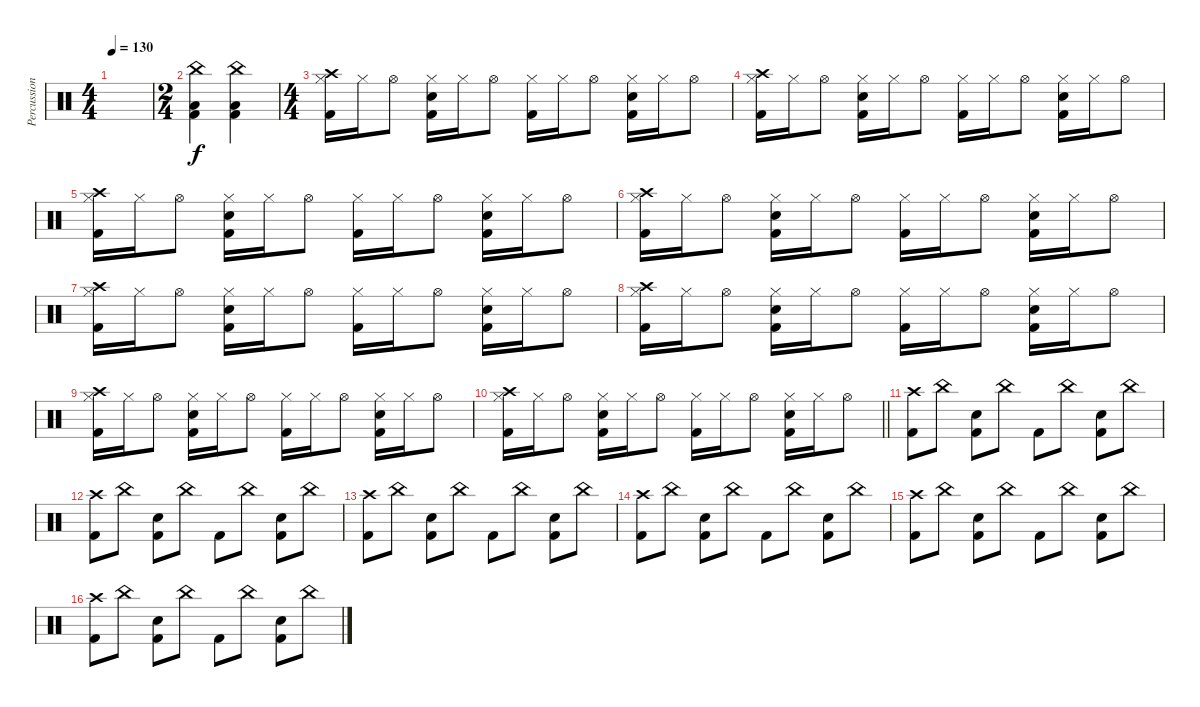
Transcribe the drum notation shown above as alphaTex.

\track ("Percussions" "Percussion") {instrument percussion}
\staff {score}
\articulation defaults
\ts (4 4)
\tempo 130
\clef neutral
\ks c
|
\ts (2 4)
("China (hit)" "Low Floor Tom (hit)" "Kick (hit) 2").4 ("China (hit)" "Low Floor Tom (hit)" "Kick (hit) 2").4 |
\ts (4 4)
\section ("" "")
("Crash high (hit)" "Hi-Hat (closed)" "Kick (hit) 2").16 "Hi-Hat (closed)".16 "Hi-Hat (open)".8 ("Hi-Hat (closed)" "Electric Snare (hit)" "Kick (hit) 2").16 "Hi-Hat (closed)".16 "Hi-Hat (open)".8 ("Hi-Hat (closed)" "Kick (hit) 2").16 "Hi-Hat (closed)".16 "Hi-Hat (open)".8 ("Hi-Hat (closed)" "Electric Snare (hit)" "Kick (hit) 2").16 "Hi-Hat (closed)".16 "Hi-Hat (open)".8 |
("Crash high (hit)" "Hi-Hat (closed)" "Kick (hit) 2").16 "Hi-Hat (closed)".16 "Hi-Hat (open)".8 ("Hi-Hat (closed)" "Electric Snare (hit)" "Kick (hit) 2").16 "Hi-Hat (closed)".16 "Hi-Hat (open)".8 ("Hi-Hat (closed)" "Kick (hit) 2").16 "Hi-Hat (closed)".16 "Hi-Hat (open)".8 ("Hi-Hat (closed)" "Electric Snare (hit)" "Kick (hit) 2").16 "Hi-Hat (closed)".16 "Hi-Hat (open)".8 |
("Crash high (hit)" "Hi-Hat (closed)" "Kick (hit) 2").16 "Hi-Hat (closed)".16 "Hi-Hat (open)".8 ("Hi-Hat (closed)" "Electric Snare (hit)" "Kick (hit) 2").16 "Hi-Hat (closed)".16 "Hi-Hat (open)".8 ("Hi-Hat (closed)" "Kick (hit) 2").16 "Hi-Hat (closed)".16 "Hi-Hat (open)".8 ("Hi-Hat (closed)" "Electric Snare (hit)" "Kick (hit) 2").16 "Hi-Hat (closed)".16 "Hi-Hat (open)".8 |
("Crash high (hit)" "Hi-Hat (closed)" "Kick (hit) 2").16 "Hi-Hat (closed)".16 "Hi-Hat (open)".8 ("Hi-Hat (closed)" "Electric Snare (hit)" "Kick (hit) 2").16 "Hi-Hat (closed)".16 "Hi-Hat (open)".8 ("Hi-Hat (closed)" "Kick (hit) 2").16 "Hi-Hat (closed)".16 "Hi-Hat (open)".8 ("Hi-Hat (closed)" "Electric Snare (hit)" "Kick (hit) 2").16 "Hi-Hat (closed)".16 "Hi-Hat (open)".8 |
("Crash high (hit)" "Hi-Hat (closed)" "Kick (hit) 2").16 "Hi-Hat (closed)".16 "Hi-Hat (open)".8 ("Hi-Hat (closed)" "Electric Snare (hit)" "Kick (hit) 2").16 "Hi-Hat (closed)".16 "Hi-Hat (open)".8 ("Hi-Hat (closed)" "Kick (hit) 2").16 "Hi-Hat (closed)".16 "Hi-Hat (open)".8 ("Hi-Hat (closed)" "Electric Snare (hit)" "Kick (hit) 2").16 "Hi-Hat (closed)".16 "Hi-Hat (open)".8 |
("Crash high (hit)" "Hi-Hat (closed)" "Kick (hit) 2").16 "Hi-Hat (closed)".16 "Hi-Hat (open)".8 ("Hi-Hat (closed)" "Electric Snare (hit)" "Kick (hit) 2").16 "Hi-Hat (closed)".16 "Hi-Hat (open)".8 ("Hi-Hat (closed)" "Kick (hit) 2").16 "Hi-Hat (closed)".16 "Hi-Hat (open)".8 ("Hi-Hat (closed)" "Electric Snare (hit)" "Kick (hit) 2").16 "Hi-Hat (closed)".16 "Hi-Hat (open)".8 |
("Crash high (hit)" "Hi-Hat (closed)" "Kick (hit) 2").16 "Hi-Hat (closed)".16 "Hi-Hat (open)".8 ("Hi-Hat (closed)" "Electric Snare (hit)" "Kick (hit) 2").16 "Hi-Hat (closed)".16 "Hi-Hat (open)".8 ("Hi-Hat (closed)" "Kick (hit) 2").16 "Hi-Hat (closed)".16 "Hi-Hat (open)".8 ("Hi-Hat (closed)" "Electric Snare (hit)" "Kick (hit) 2").16 "Hi-Hat (closed)".16 "Hi-Hat (open)".8 |
\barLineRight lightlight
("Crash high (hit)" "Hi-Hat (closed)" "Kick (hit) 2").16 "Hi-Hat (closed)".16 "Hi-Hat (open)".8 ("Hi-Hat (closed)" "Electric Snare (hit)" "Kick (hit) 2").16 "Hi-Hat (closed)".16 "Hi-Hat (open)".8 ("Hi-Hat (closed)" "Kick (hit) 2").16 "Hi-Hat (closed)".16 "Hi-Hat (open)".8 ("Hi-Hat (closed)" "Electric Snare (hit)" "Kick (hit) 2").16 "Hi-Hat (closed)".16 "Hi-Hat (open)".8 |
\section ("" "")
("Crash high (hit)" "Kick (hit) 2").8 "China (hit)".8 ("Electric Snare (hit)" "Kick (hit) 2").8 "China (hit)".8 "Kick (hit) 2".8 "China (hit)".8 ("Electric Snare (hit)" "Kick (hit) 2").8 "China (hit)".8 |
("Crash high (hit)" "Kick (hit) 2").8 "China (hit)".8 ("Electric Snare (hit)" "Kick (hit) 2").8 "China (hit)".8 "Kick (hit) 2".8 "China (hit)".8 ("Electric Snare (hit)" "Kick (hit) 2").8 "China (hit)".8 |
("Crash high (hit)" "Kick (hit) 2").8 "China (hit)".8 ("Electric Snare (hit)" "Kick (hit) 2").8 "China (hit)".8 "Kick (hit) 2".8 "China (hit)".8 ("Electric Snare (hit)" "Kick (hit) 2").8 "China (hit)".8 |
("Crash high (hit)" "Kick (hit) 2").8 "China (hit)".8 ("Electric Snare (hit)" "Kick (hit) 2").8 "China (hit)".8 "Kick (hit) 2".8 "China (hit)".8 ("Electric Snare (hit)" "Kick (hit) 2").8 "China (hit)".8 |
("Crash high (hit)" "Kick (hit) 2").8 "China (hit)".8 ("Electric Snare (hit)" "Kick (hit) 2").8 "China (hit)".8 "Kick (hit) 2".8 "China (hit)".8 ("Electric Snare (hit)" "Kick (hit) 2").8 "China (hit)".8 |
("Crash high (hit)" "Kick (hit) 2").8 "China (hit)".8 ("Electric Snare (hit)" "Kick (hit) 2").8 "China (hit)".8 "Kick (hit) 2".8 "China (hit)".8 ("Electric Snare (hit)" "Kick (hit) 2").8 "China (hit)".8
